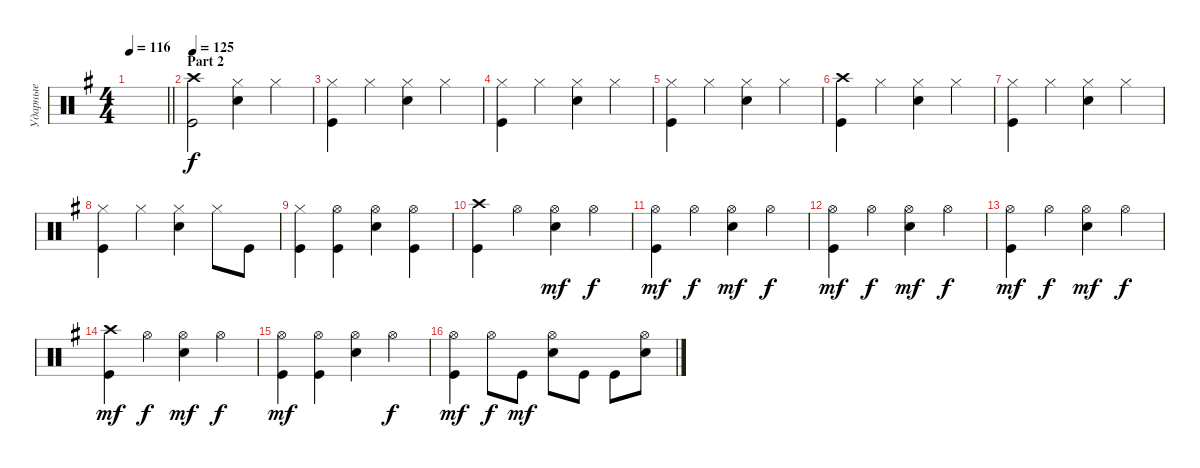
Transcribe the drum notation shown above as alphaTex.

\track ("Ударные" "Ударные") {instrument percussion}
\staff {score}
\articulation defaults
\ts (4 4)
\tempo 116
\clef neutral
\barLineRight lightlight
\ks eminor
|
\section ("" "Part 2")
\tempo 125
("Crash high (hit)" "Kick (hit)").2 ("Hi-Hat (closed)" "Snare (hit) 2").4 "Hi-Hat (closed)".4 |
("Kick (hit)" "Hi-Hat (closed)").4 "Hi-Hat (closed)".4 ("Hi-Hat (closed)" "Snare (hit) 2").4 "Hi-Hat (closed)".4 |
("Kick (hit)" "Hi-Hat (closed)").4 "Hi-Hat (closed)".4 ("Hi-Hat (closed)" "Snare (hit) 2").4 "Hi-Hat (closed)".4 |
("Kick (hit)" "Hi-Hat (closed)").4 "Hi-Hat (closed)".4 ("Hi-Hat (closed)" "Snare (hit) 2").4 "Hi-Hat (closed)".4 |
("Kick (hit)" "Crash high (hit)").4 "Hi-Hat (closed)".4 ("Hi-Hat (closed)" "Snare (hit) 2").4 "Hi-Hat (closed)".4 |
("Kick (hit)" "Hi-Hat (closed)").4 "Hi-Hat (closed)".4 ("Hi-Hat (closed)" "Snare (hit) 2").4 "Hi-Hat (closed)".4 |
("Kick (hit)" "Hi-Hat (closed)").4 "Hi-Hat (closed)".4 ("Hi-Hat (closed)" "Snare (hit) 2").4 "Hi-Hat (closed)".8 "Kick (hit)".8 |
("Kick (hit)" "Hi-Hat (closed)").4 ("Hi-Hat (open)" "Kick (hit)").4 ("Hi-Hat (open)" "Snare (hit) 2").4 ("Hi-Hat (open)" "Kick (hit)").4 |
("Kick (hit)" "Crash high (hit)").4 "Hi-Hat (open)".4{dy f} ("Hi-Hat (open)" "Snare (hit) 2").4{dy mf} "Hi-Hat (open)".4{dy f} |
("Kick (hit)" "Hi-Hat (open)").4{dy mf} "Hi-Hat (open)".4{dy f} ("Hi-Hat (open)" "Snare (hit) 2").4{dy mf} "Hi-Hat (open)".4{dy f} |
("Kick (hit)" "Hi-Hat (open)").4{dy mf} "Hi-Hat (open)".4{dy f} ("Hi-Hat (open)" "Snare (hit) 2").4{dy mf} "Hi-Hat (open)".4{dy f} |
("Kick (hit)" "Hi-Hat (open)").4{dy mf} "Hi-Hat (open)".4{dy f} ("Hi-Hat (open)" "Snare (hit) 2").4{dy mf} "Hi-Hat (open)".4{dy f} |
("Kick (hit)" "Crash high (hit)").4{dy mf} "Hi-Hat (open)".4{dy f} ("Hi-Hat (open)" "Snare (hit) 2").4{dy mf} "Hi-Hat (open)".4{dy f} |
("Kick (hit)" "Hi-Hat (open)").4{dy mf} ("Hi-Hat (open)" "Kick (hit)").4 ("Hi-Hat (open)" "Snare (hit) 2").4 "Hi-Hat (open)".4{dy f} |
("Kick (hit)" "Hi-Hat (open)").4{dy mf} "Hi-Hat (open)".8{dy f} "Kick (hit)".8{dy mf} ("Hi-Hat (open)" "Snare (hit) 2").8 "Kick (hit)".8 "Kick (hit)".8 ("Snare (hit) 2" "Hi-Hat (open)").8
